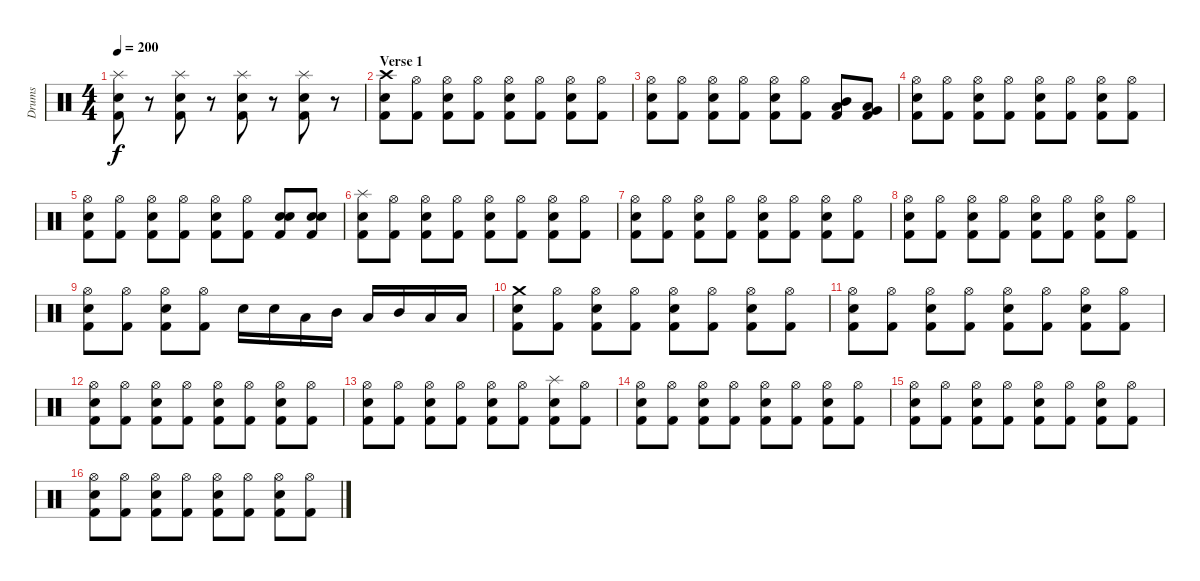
\track ("Drums" "Drums") {instrument percussion}
\staff {score}
\articulation defaults
\ts (4 4)
\tempo 200
\clef neutral
\ks c
("Splash (hit)" "Snare (hit) 2" "Kick (hit) 2").8{dy f} r.8 ("Splash (hit)" "Snare (hit) 2" "Kick (hit) 2").8 r.8 ("Splash (hit)" "Snare (hit) 2" "Kick (hit) 2").8 r.8 ("Splash (hit)" "Snare (hit) 2" "Kick (hit) 2").8 r.8 |
\section ("" "Verse 1")
("Crash high (hit)" "Snare (hit) 2" "Kick (hit) 2").8 ("Hi-Hat (open)" "Kick (hit) 2").8 ("Hi-Hat (open)" "Snare (hit) 2" "Kick (hit) 2").8 ("Hi-Hat (open)" "Kick (hit) 2").8 ("Hi-Hat (open)" "Snare (hit) 2" "Kick (hit) 2").8 ("Hi-Hat (open)" "Kick (hit) 2").8 ("Hi-Hat (open)" "Snare (hit) 2" "Kick (hit) 2").8 ("Hi-Hat (open)" "Kick (hit) 2").8 |
("Hi-Hat (open)" "Snare (hit) 2" "Kick (hit) 2").8 ("Hi-Hat (open)" "Kick (hit) 2").8 ("Hi-Hat (open)" "Snare (hit) 2" "Kick (hit) 2").8 ("Hi-Hat (open)" "Kick (hit) 2").8 ("Hi-Hat (open)" "Snare (hit) 2" "Kick (hit) 2").8 ("Hi-Hat (open)" "Kick (hit) 2").8 ("Mid Tom (hit)" "Low Tom (hit)" "Kick (hit) 2").8 ("Low Tom (hit)" "Very Low Tom (hit)" "Kick (hit) 2").8 |
("Hi-Hat (open)" "Snare (hit) 2" "Kick (hit) 2").8 ("Hi-Hat (open)" "Kick (hit) 2").8 ("Hi-Hat (open)" "Snare (hit) 2" "Kick (hit) 2").8 ("Hi-Hat (open)" "Kick (hit) 2").8 ("Hi-Hat (open)" "Snare (hit) 2" "Kick (hit) 2").8 ("Hi-Hat (open)" "Kick (hit) 2").8 ("Hi-Hat (open)" "Snare (hit) 2" "Kick (hit) 2").8 ("Hi-Hat (open)" "Kick (hit) 2").8 |
("Hi-Hat (open)" "Snare (hit) 2" "Kick (hit) 2").8 ("Hi-Hat (open)" "Kick (hit) 2").8 ("Hi-Hat (open)" "Snare (hit) 2" "Kick (hit) 2").8 ("Hi-Hat (open)" "Kick (hit) 2").8 ("Hi-Hat (open)" "Snare (hit) 2" "Kick (hit) 2").8 ("Hi-Hat (open)" "Kick (hit) 2").8 ("Snare (hit) 2" "Snare (hit) 2" "Kick (hit) 2").8 ("Snare (hit) 2" "Snare (hit) 2" "Kick (hit) 2").8 |
("Splash (hit)" "Snare (hit) 2" "Kick (hit) 2").8 ("Hi-Hat (open)" "Kick (hit) 2").8 ("Hi-Hat (open)" "Snare (hit) 2" "Kick (hit) 2").8 ("Hi-Hat (open)" "Kick (hit) 2").8 ("Hi-Hat (open)" "Snare (hit) 2" "Kick (hit) 2").8 ("Hi-Hat (open)" "Kick (hit) 2").8 ("Hi-Hat (open)" "Snare (hit) 2" "Kick (hit) 2").8 ("Hi-Hat (open)" "Kick (hit) 2").8 |
("Hi-Hat (open)" "Snare (hit) 2" "Kick (hit) 2").8 ("Hi-Hat (open)" "Kick (hit) 2").8 ("Hi-Hat (open)" "Snare (hit) 2" "Kick (hit) 2").8 ("Hi-Hat (open)" "Kick (hit) 2").8 ("Hi-Hat (open)" "Snare (hit) 2" "Kick (hit) 2").8 ("Hi-Hat (open)" "Kick (hit) 2").8 ("Hi-Hat (open)" "Snare (hit) 2" "Kick (hit) 2").8 ("Hi-Hat (open)" "Kick (hit) 2").8 |
("Hi-Hat (open)" "Snare (hit) 2" "Kick (hit) 2").8 ("Hi-Hat (open)" "Kick (hit) 2").8 ("Hi-Hat (open)" "Snare (hit) 2" "Kick (hit) 2").8 ("Hi-Hat (open)" "Kick (hit) 2").8 ("Hi-Hat (open)" "Snare (hit) 2" "Kick (hit) 2").8 ("Hi-Hat (open)" "Kick (hit) 2").8 ("Hi-Hat (open)" "Snare (hit) 2" "Kick (hit) 2").8 ("Hi-Hat (open)" "Kick (hit) 2").8 |
("Hi-Hat (open)" "Snare (hit) 2" "Kick (hit) 2").8 ("Hi-Hat (open)" "Kick (hit) 2").8 ("Hi-Hat (open)" "Snare (hit) 2" "Kick (hit) 2").8 ("Hi-Hat (open)" "Kick (hit) 2").8 "Snare (hit) 2".16 "Snare (hit) 2".16 "Low Tom (hit)".16 "Mid Tom (hit)".16 "Low Tom (hit)".16 "Mid Tom (hit)".16 "Low Tom (hit)".16 "Low Tom (hit)".16 |
("Crash medium (hit)" "Snare (hit) 2" "Kick (hit) 2").8 ("Hi-Hat (open)" "Kick (hit) 2").8 ("Hi-Hat (open)" "Snare (hit) 2" "Kick (hit) 2").8 ("Hi-Hat (open)" "Kick (hit) 2").8 ("Hi-Hat (open)" "Snare (hit) 2" "Kick (hit) 2").8 ("Hi-Hat (open)" "Kick (hit) 2").8 ("Hi-Hat (open)" "Snare (hit) 2" "Kick (hit) 2").8 ("Hi-Hat (open)" "Kick (hit) 2").8 |
("Hi-Hat (open)" "Snare (hit) 2" "Kick (hit) 2").8 ("Hi-Hat (open)" "Kick (hit) 2").8 ("Hi-Hat (open)" "Snare (hit) 2" "Kick (hit) 2").8 ("Hi-Hat (open)" "Kick (hit) 2").8 ("Hi-Hat (open)" "Snare (hit) 2" "Kick (hit) 2").8 ("Hi-Hat (open)" "Kick (hit) 2").8 ("Hi-Hat (open)" "Snare (hit) 2" "Kick (hit) 2").8 ("Hi-Hat (open)" "Kick (hit) 2").8 |
("Hi-Hat (open)" "Snare (hit) 2" "Kick (hit) 2").8 ("Hi-Hat (open)" "Kick (hit) 2").8 ("Hi-Hat (open)" "Snare (hit) 2" "Kick (hit) 2").8 ("Hi-Hat (open)" "Kick (hit) 2").8 ("Hi-Hat (open)" "Snare (hit) 2" "Kick (hit) 2").8 ("Hi-Hat (open)" "Kick (hit) 2").8 ("Hi-Hat (open)" "Snare (hit) 2" "Kick (hit) 2").8 ("Hi-Hat (open)" "Kick (hit) 2").8 |
("Hi-Hat (open)" "Snare (hit) 2" "Kick (hit) 2").8 ("Hi-Hat (open)" "Kick (hit) 2").8 ("Hi-Hat (open)" "Snare (hit) 2" "Kick (hit) 2").8 ("Hi-Hat (open)" "Kick (hit) 2").8 ("Hi-Hat (open)" "Snare (hit) 2" "Kick (hit) 2").8 ("Hi-Hat (open)" "Kick (hit) 2").8 ("Splash (hit)" "Snare (hit) 2" "Kick (hit) 2").8 ("Hi-Hat (open)" "Kick (hit) 2").8 |
("Hi-Hat (open)" "Snare (hit) 2" "Kick (hit) 2").8 ("Hi-Hat (open)" "Kick (hit) 2").8 ("Hi-Hat (open)" "Snare (hit) 2" "Kick (hit) 2").8 ("Hi-Hat (open)" "Kick (hit) 2").8 ("Hi-Hat (open)" "Snare (hit) 2" "Kick (hit) 2").8 ("Hi-Hat (open)" "Kick (hit) 2").8 ("Hi-Hat (open)" "Snare (hit) 2" "Kick (hit) 2").8 ("Hi-Hat (open)" "Kick (hit) 2").8 |
("Hi-Hat (open)" "Snare (hit) 2" "Kick (hit) 2").8 ("Hi-Hat (open)" "Kick (hit) 2").8 ("Hi-Hat (open)" "Snare (hit) 2" "Kick (hit) 2").8 ("Hi-Hat (open)" "Kick (hit) 2").8 ("Hi-Hat (open)" "Snare (hit) 2" "Kick (hit) 2").8 ("Hi-Hat (open)" "Kick (hit) 2").8 ("Hi-Hat (open)" "Snare (hit) 2" "Kick (hit) 2").8 ("Hi-Hat (open)" "Kick (hit) 2").8 |
("Hi-Hat (open)" "Snare (hit) 2" "Kick (hit) 2").8 ("Hi-Hat (open)" "Kick (hit) 2").8 ("Hi-Hat (open)" "Snare (hit) 2" "Kick (hit) 2").8 ("Hi-Hat (open)" "Kick (hit) 2").8 ("Hi-Hat (open)" "Snare (hit) 2" "Kick (hit) 2").8 ("Hi-Hat (open)" "Kick (hit) 2").8 ("Hi-Hat (open)" "Snare (hit) 2" "Kick (hit) 2").8 ("Hi-Hat (open)" "Kick (hit) 2").8
